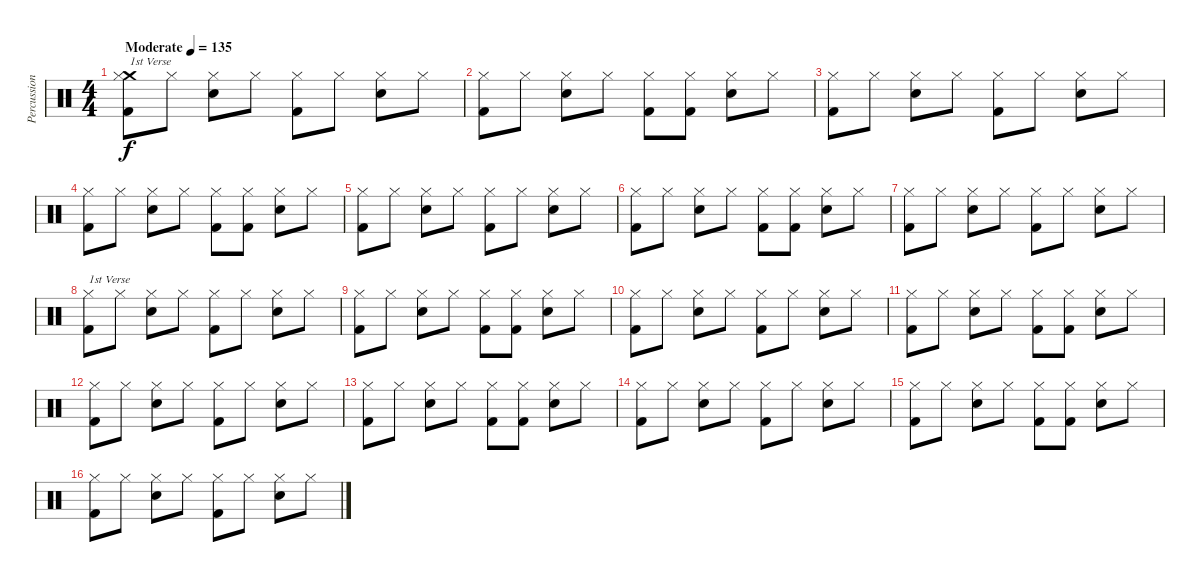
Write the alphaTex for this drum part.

\track ("Percussion" "Percussion") {instrument percussion}
\staff {score}
\articulation defaults
\ts (4 4)
\tempo (135 "Moderate")
\clef neutral
\ks c
("Crash medium (hit)" "Hi-Hat (closed)" "Kick (hit) 2").8{txt "1st Verse" dy f} "Hi-Hat (closed)".8 ("Hi-Hat (closed)" "Snare (hit) 2").8 "Hi-Hat (closed)".8 ("Hi-Hat (closed)" "Kick (hit) 2").8 "Hi-Hat (closed)".8 ("Hi-Hat (closed)" "Snare (hit) 2").8 "Hi-Hat (closed)".8 |
("Hi-Hat (closed)" "Kick (hit) 2").8 "Hi-Hat (closed)".8 ("Hi-Hat (closed)" "Snare (hit) 2").8 "Hi-Hat (closed)".8 ("Hi-Hat (closed)" "Kick (hit) 2").8 ("Hi-Hat (closed)" "Kick (hit) 2").8 ("Hi-Hat (closed)" "Snare (hit) 2").8 "Hi-Hat (closed)".8 |
("Hi-Hat (closed)" "Kick (hit) 2").8 "Hi-Hat (closed)".8 ("Hi-Hat (closed)" "Snare (hit) 2").8 "Hi-Hat (closed)".8 ("Hi-Hat (closed)" "Kick (hit) 2").8 "Hi-Hat (closed)".8 ("Hi-Hat (closed)" "Snare (hit) 2").8 "Hi-Hat (closed)".8 |
("Hi-Hat (closed)" "Kick (hit) 2").8 "Hi-Hat (closed)".8 ("Hi-Hat (closed)" "Snare (hit) 2").8 "Hi-Hat (closed)".8 ("Hi-Hat (closed)" "Kick (hit) 2").8 ("Hi-Hat (closed)" "Kick (hit) 2").8 ("Hi-Hat (closed)" "Snare (hit) 2").8 "Hi-Hat (closed)".8 |
("Hi-Hat (closed)" "Kick (hit) 2").8 "Hi-Hat (closed)".8 ("Hi-Hat (closed)" "Snare (hit) 2").8 "Hi-Hat (closed)".8 ("Hi-Hat (closed)" "Kick (hit) 2").8 "Hi-Hat (closed)".8 ("Hi-Hat (closed)" "Snare (hit) 2").8 "Hi-Hat (closed)".8 |
("Hi-Hat (closed)" "Kick (hit) 2").8 "Hi-Hat (closed)".8 ("Hi-Hat (closed)" "Snare (hit) 2").8 "Hi-Hat (closed)".8 ("Hi-Hat (closed)" "Kick (hit) 2").8 ("Hi-Hat (closed)" "Kick (hit) 2").8 ("Hi-Hat (closed)" "Snare (hit) 2").8 "Hi-Hat (closed)".8 |
("Hi-Hat (closed)" "Kick (hit) 2").8 "Hi-Hat (closed)".8 ("Hi-Hat (closed)" "Snare (hit) 2").8 "Hi-Hat (closed)".8 ("Hi-Hat (closed)" "Kick (hit) 2").8 "Hi-Hat (closed)".8 ("Hi-Hat (closed)" "Snare (hit) 2").8 "Hi-Hat (closed)".8 |
("Hi-Hat (closed)" "Kick (hit) 2").8{txt "1st Verse"} "Hi-Hat (closed)".8 ("Hi-Hat (closed)" "Snare (hit) 2").8 "Hi-Hat (closed)".8 ("Hi-Hat (closed)" "Kick (hit) 2").8 "Hi-Hat (closed)".8 ("Hi-Hat (closed)" "Snare (hit) 2").8 "Hi-Hat (closed)".8 |
("Hi-Hat (closed)" "Kick (hit) 2").8 "Hi-Hat (closed)".8 ("Hi-Hat (closed)" "Snare (hit) 2").8 "Hi-Hat (closed)".8 ("Hi-Hat (closed)" "Kick (hit) 2").8 ("Hi-Hat (closed)" "Kick (hit) 2").8 ("Hi-Hat (closed)" "Snare (hit) 2").8 "Hi-Hat (closed)".8 |
("Hi-Hat (closed)" "Kick (hit) 2").8 "Hi-Hat (closed)".8 ("Hi-Hat (closed)" "Snare (hit) 2").8 "Hi-Hat (closed)".8 ("Hi-Hat (closed)" "Kick (hit) 2").8 "Hi-Hat (closed)".8 ("Hi-Hat (closed)" "Snare (hit) 2").8 "Hi-Hat (closed)".8 |
("Hi-Hat (closed)" "Kick (hit) 2").8 "Hi-Hat (closed)".8 ("Hi-Hat (closed)" "Snare (hit) 2").8 "Hi-Hat (closed)".8 ("Hi-Hat (closed)" "Kick (hit) 2").8 ("Hi-Hat (closed)" "Kick (hit) 2").8 ("Hi-Hat (closed)" "Snare (hit) 2").8 "Hi-Hat (closed)".8 |
("Hi-Hat (closed)" "Kick (hit) 2").8 "Hi-Hat (closed)".8 ("Hi-Hat (closed)" "Snare (hit) 2").8 "Hi-Hat (closed)".8 ("Hi-Hat (closed)" "Kick (hit) 2").8 "Hi-Hat (closed)".8 ("Hi-Hat (closed)" "Snare (hit) 2").8 "Hi-Hat (closed)".8 |
("Hi-Hat (closed)" "Kick (hit) 2").8 "Hi-Hat (closed)".8 ("Hi-Hat (closed)" "Snare (hit) 2").8 "Hi-Hat (closed)".8 ("Hi-Hat (closed)" "Kick (hit) 2").8 ("Hi-Hat (closed)" "Kick (hit) 2").8 ("Hi-Hat (closed)" "Snare (hit) 2").8 "Hi-Hat (closed)".8 |
("Hi-Hat (closed)" "Kick (hit) 2").8 "Hi-Hat (closed)".8 ("Hi-Hat (closed)" "Snare (hit) 2").8 "Hi-Hat (closed)".8 ("Hi-Hat (closed)" "Kick (hit) 2").8 "Hi-Hat (closed)".8 ("Hi-Hat (closed)" "Snare (hit) 2").8 "Hi-Hat (closed)".8 |
("Hi-Hat (closed)" "Kick (hit) 2").8 "Hi-Hat (closed)".8 ("Hi-Hat (closed)" "Snare (hit) 2").8 "Hi-Hat (closed)".8 ("Hi-Hat (closed)" "Kick (hit) 2").8 ("Hi-Hat (closed)" "Kick (hit) 2").8 ("Hi-Hat (closed)" "Snare (hit) 2").8 "Hi-Hat (closed)".8 |
("Hi-Hat (closed)" "Kick (hit) 2").8 "Hi-Hat (closed)".8 ("Hi-Hat (closed)" "Snare (hit) 2").8 "Hi-Hat (closed)".8 ("Hi-Hat (closed)" "Kick (hit) 2").8 "Hi-Hat (closed)".8 ("Hi-Hat (closed)" "Snare (hit) 2").8 "Hi-Hat (closed)".8
